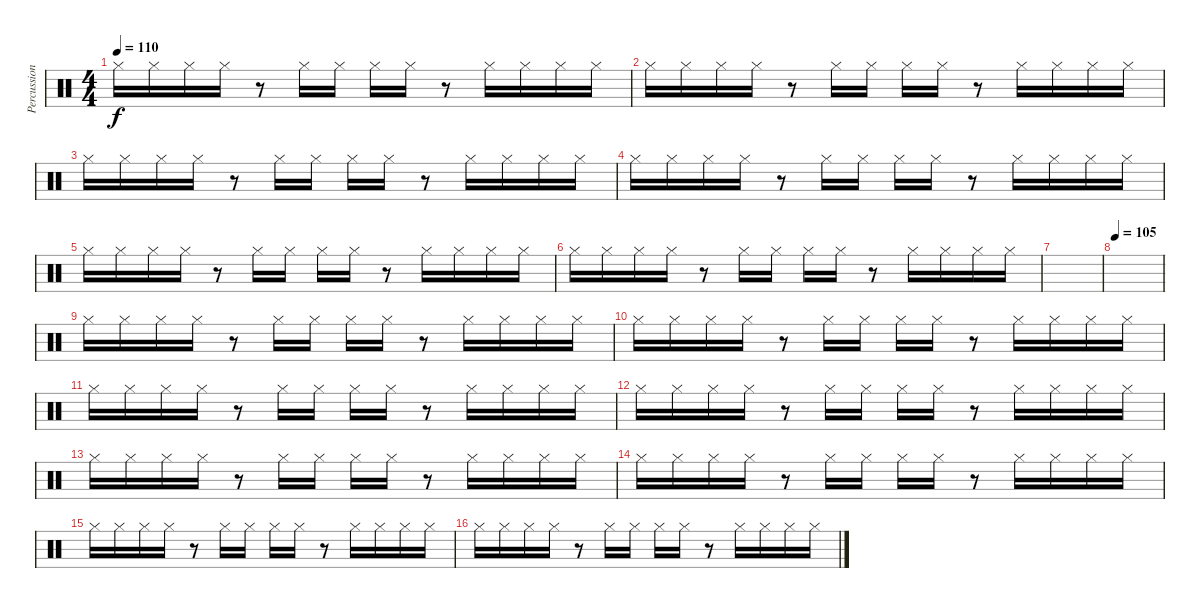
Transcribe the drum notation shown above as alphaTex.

\track ("Percussion" "Percussion") {instrument percussion}
\staff {score}
\articulation defaults
\ts (4 4)
\tempo 110
\clef neutral
\ks c "Hi-Hat (closed)".16{dy f} "Hi-Hat (closed)".16 "Hi-Hat (closed)".16 "Hi-Hat (closed)".16
r.8 "Hi-Hat (closed)".16 "Hi-Hat (closed)".16 "Hi-Hat (closed)".16 "Hi-Hat (closed)".16 r.8 "Hi-Hat (closed)".16 "Hi-Hat (closed)".16 "Hi-Hat (closed)".16 "Hi-Hat (closed)".16 |
"Hi-Hat (closed)".16 "Hi-Hat (closed)".16 "Hi-Hat (closed)".16 "Hi-Hat (closed)".16 r.8 "Hi-Hat (closed)".16 "Hi-Hat (closed)".16 "Hi-Hat (closed)".16 "Hi-Hat (closed)".16 r.8 "Hi-Hat (closed)".16 "Hi-Hat (closed)".16 "Hi-Hat (closed)".16 "Hi-Hat (closed)".16 |
"Hi-Hat (closed)".16 "Hi-Hat (closed)".16 "Hi-Hat (closed)".16 "Hi-Hat (closed)".16 r.8 "Hi-Hat (closed)".16 "Hi-Hat (closed)".16 "Hi-Hat (closed)".16 "Hi-Hat (closed)".16 r.8 "Hi-Hat (closed)".16 "Hi-Hat (closed)".16 "Hi-Hat (closed)".16 "Hi-Hat (closed)".16 |
"Hi-Hat (closed)".16 "Hi-Hat (closed)".16 "Hi-Hat (closed)".16 "Hi-Hat (closed)".16 r.8 "Hi-Hat (closed)".16 "Hi-Hat (closed)".16 "Hi-Hat (closed)".16 "Hi-Hat (closed)".16 r.8 "Hi-Hat (closed)".16 "Hi-Hat (closed)".16 "Hi-Hat (closed)".16 "Hi-Hat (closed)".16 |
"Hi-Hat (closed)".16 "Hi-Hat (closed)".16 "Hi-Hat (closed)".16 "Hi-Hat (closed)".16 r.8 "Hi-Hat (closed)".16 "Hi-Hat (closed)".16 "Hi-Hat (closed)".16 "Hi-Hat (closed)".16 r.8 "Hi-Hat (closed)".16 "Hi-Hat (closed)".16 "Hi-Hat (closed)".16 "Hi-Hat (closed)".16 |
"Hi-Hat (closed)".16 "Hi-Hat (closed)".16 "Hi-Hat (closed)".16 "Hi-Hat (closed)".16 r.8 "Hi-Hat (closed)".16 "Hi-Hat (closed)".16 "Hi-Hat (closed)".16 "Hi-Hat (closed)".16 r.8 "Hi-Hat (closed)".16 "Hi-Hat (closed)".16 "Hi-Hat (closed)".16 "Hi-Hat (closed)".16 |
|
\tempo 105
|
"Hi-Hat (closed)".16 "Hi-Hat (closed)".16 "Hi-Hat (closed)".16 "Hi-Hat (closed)".16 r.8 "Hi-Hat (closed)".16 "Hi-Hat (closed)".16 "Hi-Hat (closed)".16 "Hi-Hat (closed)".16 r.8 "Hi-Hat (closed)".16 "Hi-Hat (closed)".16 "Hi-Hat (closed)".16 "Hi-Hat (closed)".16 |
"Hi-Hat (closed)".16 "Hi-Hat (closed)".16 "Hi-Hat (closed)".16 "Hi-Hat (closed)".16 r.8 "Hi-Hat (closed)".16 "Hi-Hat (closed)".16 "Hi-Hat (closed)".16 "Hi-Hat (closed)".16 r.8 "Hi-Hat (closed)".16 "Hi-Hat (closed)".16 "Hi-Hat (closed)".16 "Hi-Hat (closed)".16 |
"Hi-Hat (closed)".16 "Hi-Hat (closed)".16 "Hi-Hat (closed)".16 "Hi-Hat (closed)".16 r.8 "Hi-Hat (closed)".16 "Hi-Hat (closed)".16 "Hi-Hat (closed)".16 "Hi-Hat (closed)".16 r.8 "Hi-Hat (closed)".16 "Hi-Hat (closed)".16 "Hi-Hat (closed)".16 "Hi-Hat (closed)".16 |
"Hi-Hat (closed)".16 "Hi-Hat (closed)".16 "Hi-Hat (closed)".16 "Hi-Hat (closed)".16 r.8 "Hi-Hat (closed)".16 "Hi-Hat (closed)".16 "Hi-Hat (closed)".16 "Hi-Hat (closed)".16 r.8 "Hi-Hat (closed)".16 "Hi-Hat (closed)".16 "Hi-Hat (closed)".16 "Hi-Hat (closed)".16 |
"Hi-Hat (closed)".16 "Hi-Hat (closed)".16 "Hi-Hat (closed)".16 "Hi-Hat (closed)".16 r.8 "Hi-Hat (closed)".16 "Hi-Hat (closed)".16 "Hi-Hat (closed)".16 "Hi-Hat (closed)".16 r.8 "Hi-Hat (closed)".16 "Hi-Hat (closed)".16 "Hi-Hat (closed)".16 "Hi-Hat (closed)".16 |
"Hi-Hat (closed)".16 "Hi-Hat (closed)".16 "Hi-Hat (closed)".16 "Hi-Hat (closed)".16 r.8 "Hi-Hat (closed)".16 "Hi-Hat (closed)".16 "Hi-Hat (closed)".16 "Hi-Hat (closed)".16 r.8 "Hi-Hat (closed)".16 "Hi-Hat (closed)".16 "Hi-Hat (closed)".16 "Hi-Hat (closed)".16 |
"Hi-Hat (closed)".16 "Hi-Hat (closed)".16 "Hi-Hat (closed)".16 "Hi-Hat (closed)".16 r.8 "Hi-Hat (closed)".16 "Hi-Hat (closed)".16 "Hi-Hat (closed)".16 "Hi-Hat (closed)".16 r.8 "Hi-Hat (closed)".16 "Hi-Hat (closed)".16 "Hi-Hat (closed)".16 "Hi-Hat (closed)".16 |
"Hi-Hat (closed)".16 "Hi-Hat (closed)".16 "Hi-Hat (closed)".16 "Hi-Hat (closed)".16 r.8 "Hi-Hat (closed)".16 "Hi-Hat (closed)".16 "Hi-Hat (closed)".16 "Hi-Hat (closed)".16 r.8 "Hi-Hat (closed)".16 "Hi-Hat (closed)".16 "Hi-Hat (closed)".16 "Hi-Hat (closed)".16
